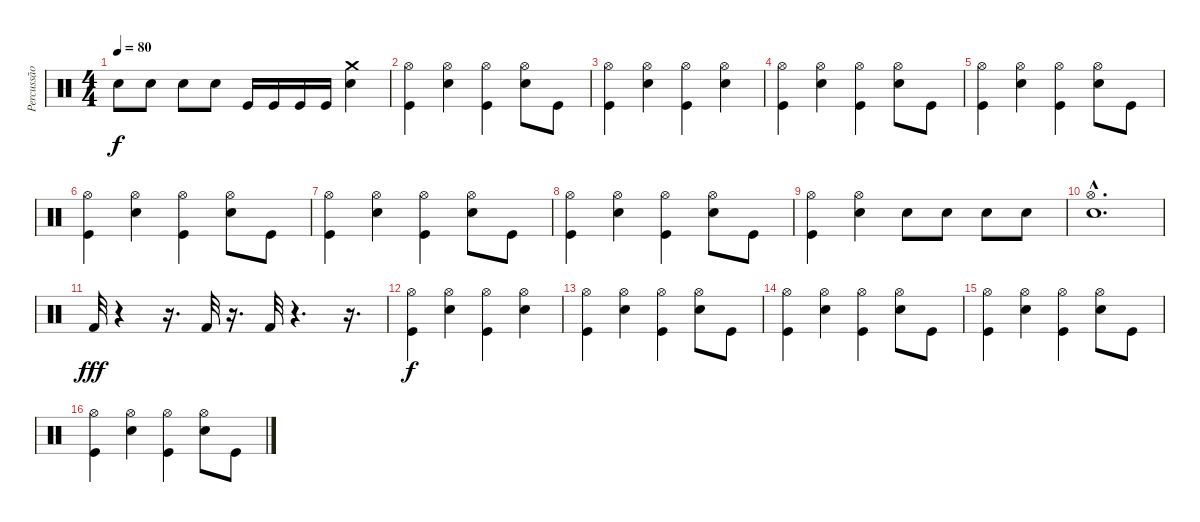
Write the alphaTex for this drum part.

\track ("Percussão" "Percussão") {instrument percussion}
\staff {score}
\articulation defaults
\ts (4 4)
\tempo 80
\clef neutral
\ks c "Electric Snare (hit)".8{dy f} "Electric Snare (hit)".8 "Electric Snare (hit)".8 "Electric Snare (hit)".8 "Kick (hit)".16 "Kick (hit)".16 "Kick (hit)".16 "Kick (hit)".16
("Electric Snare (hit)" "Crash medium (hit)").4 |
("Hi-Hat (open)" "Kick (hit)").4 ("Hi-Hat (open)" "Electric Snare (hit)").4 ("Hi-Hat (open)" "Kick (hit)").4 ("Hi-Hat (open)" "Electric Snare (hit)").8 "Kick (hit)".8 |
("Hi-Hat (open)" "Kick (hit)").4 ("Hi-Hat (open)" "Electric Snare (hit)").4 ("Hi-Hat (open)" "Kick (hit)").4 ("Hi-Hat (open)" "Electric Snare (hit)").4 |
("Hi-Hat (open)" "Kick (hit)").4 ("Hi-Hat (open)" "Electric Snare (hit)").4 ("Hi-Hat (open)" "Kick (hit)").4 ("Hi-Hat (open)" "Electric Snare (hit)").8 "Kick (hit)".8 |
("Hi-Hat (open)" "Kick (hit)").4 ("Hi-Hat (open)" "Electric Snare (hit)").4 ("Hi-Hat (open)" "Kick (hit)").4 ("Hi-Hat (open)" "Electric Snare (hit)").8 "Kick (hit)".8 |
("Hi-Hat (open)" "Kick (hit)").4 ("Hi-Hat (open)" "Electric Snare (hit)").4 ("Hi-Hat (open)" "Kick (hit)").4 ("Hi-Hat (open)" "Electric Snare (hit)").8 "Kick (hit)".8 |
("Hi-Hat (open)" "Kick (hit)").4 ("Hi-Hat (open)" "Electric Snare (hit)").4 ("Hi-Hat (open)" "Kick (hit)").4 ("Hi-Hat (open)" "Electric Snare (hit)").8 "Kick (hit)".8 |
("Hi-Hat (open)" "Kick (hit)").4 ("Hi-Hat (open)" "Electric Snare (hit)").4 ("Hi-Hat (open)" "Kick (hit)").4 ("Hi-Hat (open)" "Electric Snare (hit)").8 "Kick (hit)".8 |
("Hi-Hat (open)" "Kick (hit)").4 ("Hi-Hat (open)" "Electric Snare (hit)").4 "Electric Snare (hit)".8 "Electric Snare (hit)".8 "Electric Snare (hit)".8 "Electric Snare (hit)".8 |
("Hi-Hat (open)"{hac} "Electric Snare (hit)"{hac}).1{d} |
"Kick (hit) 2".32{dy fff} r.4 r.16{d} "Kick (hit) 2".32 r.16{d} "Kick (hit) 2".32 r.4{d} r.16{d} |
("Hi-Hat (open)" "Kick (hit)").4{dy f} ("Hi-Hat (open)" "Electric Snare (hit)").4 ("Hi-Hat (open)" "Kick (hit)").4 ("Hi-Hat (open)" "Electric Snare (hit)").4 |
("Hi-Hat (open)" "Kick (hit)").4 ("Hi-Hat (open)" "Electric Snare (hit)").4 ("Hi-Hat (open)" "Kick (hit)").4 ("Hi-Hat (open)" "Electric Snare (hit)").8 "Kick (hit)".8 |
("Hi-Hat (open)" "Kick (hit)").4 ("Hi-Hat (open)" "Electric Snare (hit)").4 ("Hi-Hat (open)" "Kick (hit)").4 ("Hi-Hat (open)" "Electric Snare (hit)").8 "Kick (hit)".8 |
("Hi-Hat (open)" "Kick (hit)").4 ("Hi-Hat (open)" "Electric Snare (hit)").4 ("Hi-Hat (open)" "Kick (hit)").4 ("Hi-Hat (open)" "Electric Snare (hit)").8 "Kick (hit)".8 |
("Hi-Hat (open)" "Kick (hit)").4 ("Hi-Hat (open)" "Electric Snare (hit)").4 ("Hi-Hat (open)" "Kick (hit)").4 ("Hi-Hat (open)" "Electric Snare (hit)").8 "Kick (hit)".8
